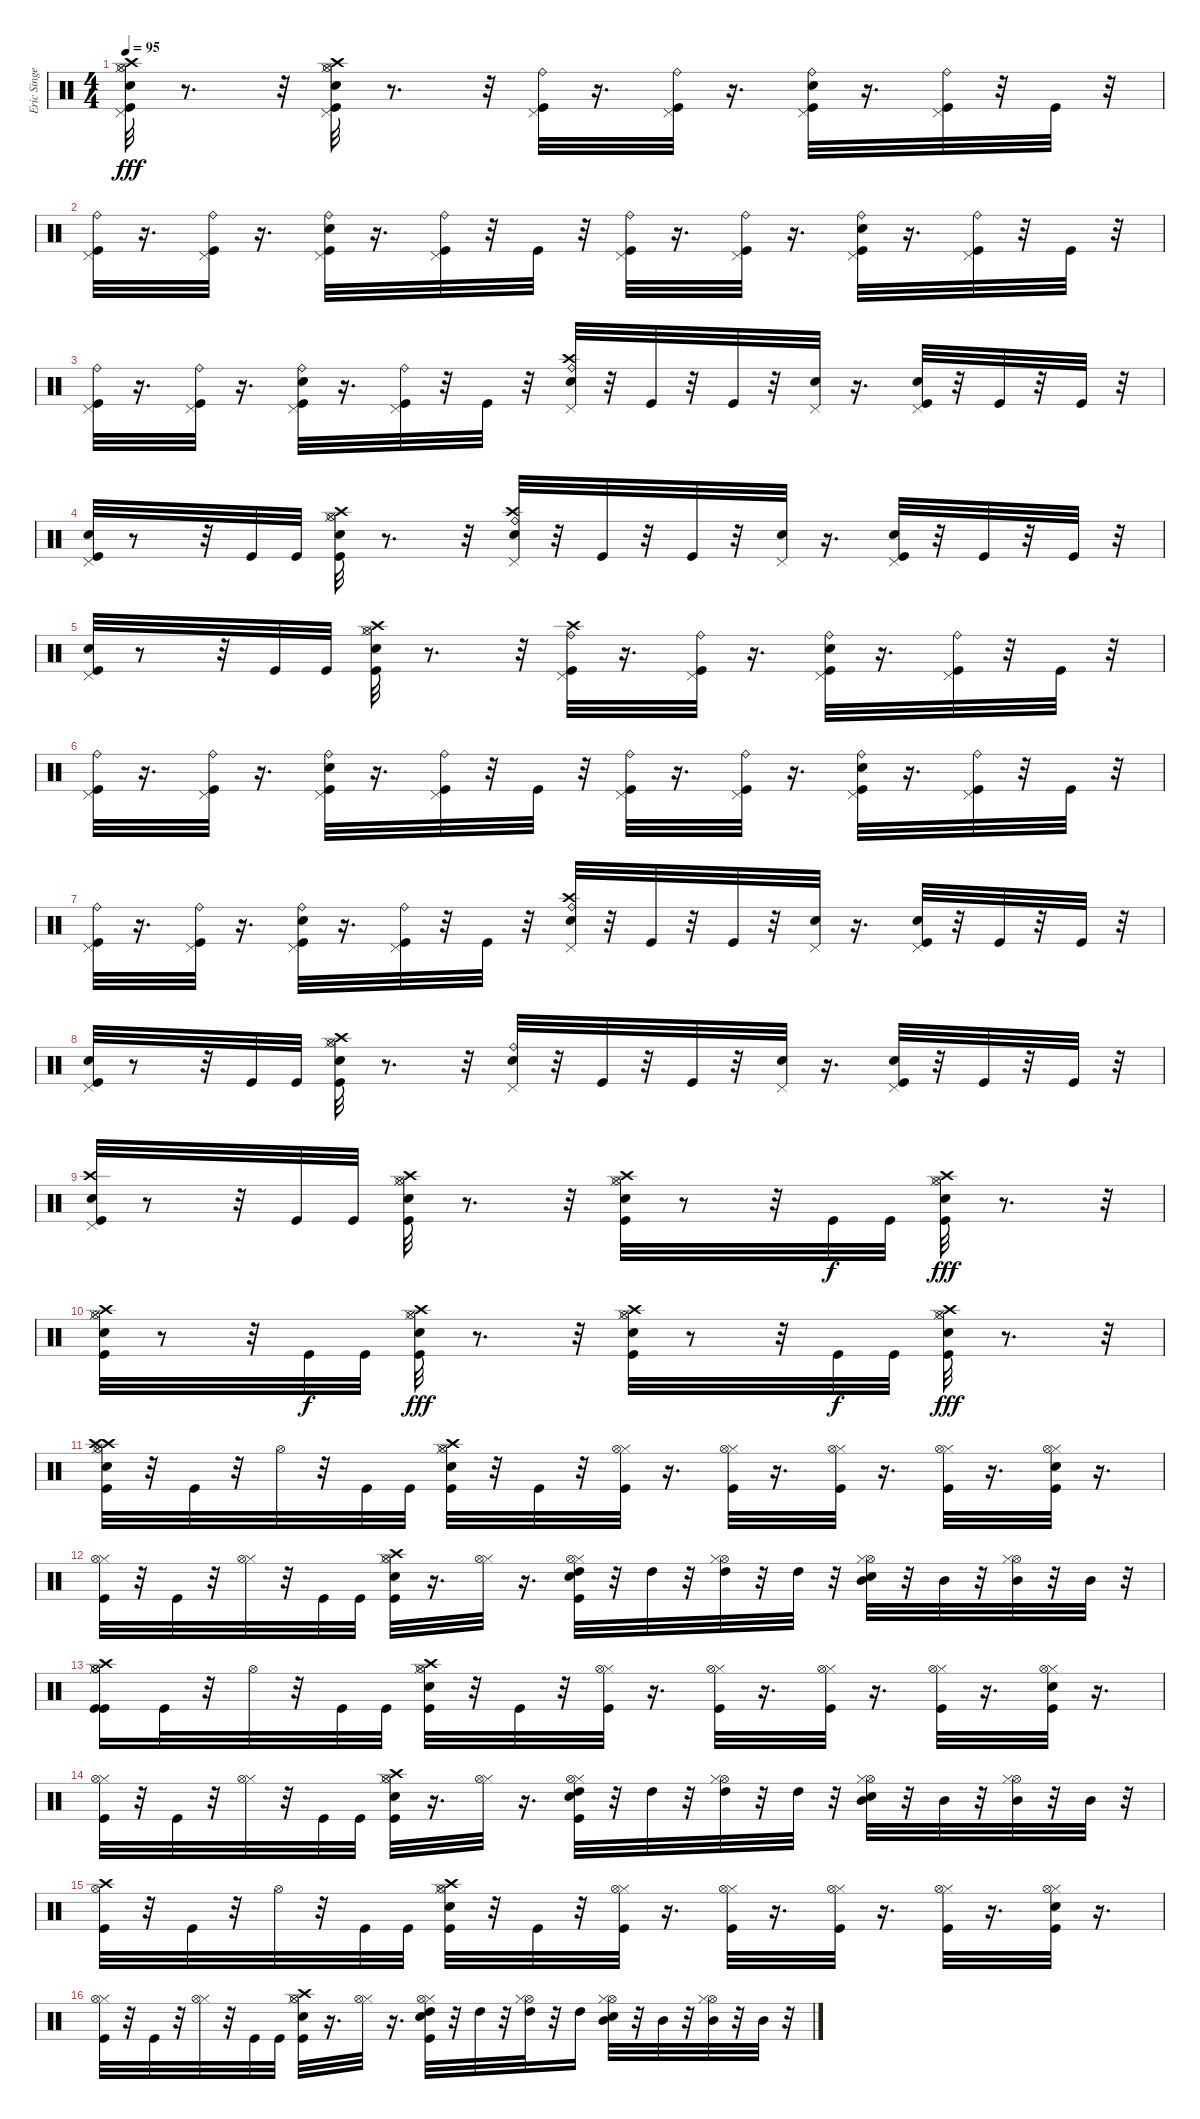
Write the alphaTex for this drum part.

\track ("Eric Singer" "Eric Singe") {instrument percussion}
\staff {score}
\articulation defaults
\ts (4 4)
\tempo 95
\clef neutral
\ks c
("Hi-Hat (open)" "Snare (hit) 2" "Hi-Hat (closed)" "Kick (hit)" "Crash high (hit)" "Pedal Hi-Hat (hit)").32{dy fff} r.8{d} r.32 ("Hi-Hat (open)" "Snare (hit) 2" "Hi-Hat (closed)" "Kick (hit)" "Crash high (hit)" "Pedal Hi-Hat (hit)").32 r.8{d} r.32 ("Pedal Hi-Hat (hit)" "Kick (hit)" "Ride (bell)").32 r.16{d} ("Pedal Hi-Hat (hit)" "Kick (hit)" "Ride (bell)").32 r.16{d} ("Pedal Hi-Hat (hit)" "Kick (hit)" "Snare (hit) 2" "Ride (bell)").32 r.16{d} ("Pedal Hi-Hat (hit)" "Kick (hit)" "Ride (bell)").32 r.32 "Kick (hit)".32 r.32 |
("Pedal Hi-Hat (hit)" "Kick (hit)" "Ride (bell)").32 r.16{d} ("Kick (hit)" "Pedal Hi-Hat (hit)" "Ride (bell)").32 r.16{d} ("Kick (hit)" "Snare (hit) 2" "Pedal Hi-Hat (hit)" "Ride (bell)").32 r.16{d} ("Kick (hit)" "Pedal Hi-Hat (hit)" "Ride (bell)").32 r.32 "Kick (hit)".32 r.32 ("Kick (hit)" "Pedal Hi-Hat (hit)" "Ride (bell)").32 r.16{d} ("Kick (hit)" "Pedal Hi-Hat (hit)" "Ride (bell)").32 r.16{d} ("Kick (hit)" "Snare (hit) 2" "Pedal Hi-Hat (hit)" "Ride (bell)").32 r.16{d} ("Kick (hit)" "Pedal Hi-Hat (hit)" "Ride (bell)").32 r.32 "Kick (hit)".32 r.32 |
("Kick (hit)" "Pedal Hi-Hat (hit)" "Ride (bell)").32 r.16{d} ("Kick (hit)" "Pedal Hi-Hat (hit)" "Ride (bell)").32 r.16{d} ("Kick (hit)" "Snare (hit) 2" "Pedal Hi-Hat (hit)" "Ride (bell)").32 r.16{d} ("Kick (hit)" "Pedal Hi-Hat (hit)" "Ride (bell)").32 r.32 "Kick (hit)".32 r.32 ("Crash high (hit)" "Pedal Hi-Hat (hit)" "Snare (hit) 2" "Ride (bell)").32 r.32 "Kick (hit)".32 r.32 "Kick (hit)".32 r.32 ("Pedal Hi-Hat (hit)" "Snare (hit) 2").32 r.16{d} ("Kick (hit)" "Snare (hit) 2" "Pedal Hi-Hat (hit)").32 r.32 "Kick (hit)".32 r.32 "Kick (hit)".32 r.32 |
("Kick (hit)" "Snare (hit) 2" "Pedal Hi-Hat (hit)").32 r.8 r.32 "Kick (hit)".32 "Kick (hit)".32 ("Hi-Hat (closed)" "Hi-Hat (open)" "Snare (hit) 2" "Kick (hit)" "Crash high (hit)").32 r.8{d} r.32 ("Crash high (hit)" "Pedal Hi-Hat (hit)" "Snare (hit) 2" "Ride (bell)").32 r.32 "Kick (hit)".32 r.32 "Kick (hit)".32 r.32 ("Pedal Hi-Hat (hit)" "Snare (hit) 2").32 r.16{d} ("Kick (hit)" "Snare (hit) 2" "Pedal Hi-Hat (hit)").32 r.32 "Kick (hit)".32 r.32 "Kick (hit)".32 r.32 |
("Kick (hit)" "Snare (hit) 2" "Pedal Hi-Hat (hit)").32 r.8 r.32 "Kick (hit)".32 "Kick (hit)".32 ("Hi-Hat (closed)" "Hi-Hat (open)" "Snare (hit) 2" "Kick (hit)" "Crash high (hit)").32 r.8{d} r.32 ("Pedal Hi-Hat (hit)" "Kick (hit)" "Ride (bell)" "Crash high (hit)").32 r.16{d} ("Pedal Hi-Hat (hit)" "Kick (hit)" "Ride (bell)").32 r.16{d} ("Pedal Hi-Hat (hit)" "Kick (hit)" "Snare (hit) 2" "Ride (bell)").32 r.16{d} ("Pedal Hi-Hat (hit)" "Kick (hit)" "Ride (bell)").32 r.32 "Kick (hit)".32 r.32 |
("Pedal Hi-Hat (hit)" "Kick (hit)" "Ride (bell)").32 r.16{d} ("Kick (hit)" "Pedal Hi-Hat (hit)" "Ride (bell)").32 r.16{d} ("Kick (hit)" "Snare (hit) 2" "Pedal Hi-Hat (hit)" "Ride (bell)").32 r.16{d} ("Kick (hit)" "Pedal Hi-Hat (hit)" "Ride (bell)").32 r.32 "Kick (hit)".32 r.32 ("Kick (hit)" "Pedal Hi-Hat (hit)" "Ride (bell)").32 r.16{d} ("Kick (hit)" "Pedal Hi-Hat (hit)" "Ride (bell)").32 r.16{d} ("Kick (hit)" "Snare (hit) 2" "Pedal Hi-Hat (hit)" "Ride (bell)").32 r.16{d} ("Kick (hit)" "Pedal Hi-Hat (hit)" "Ride (bell)").32 r.32 "Kick (hit)".32 r.32 |
("Kick (hit)" "Pedal Hi-Hat (hit)" "Ride (bell)").32 r.16{d} ("Kick (hit)" "Pedal Hi-Hat (hit)" "Ride (bell)").32 r.16{d} ("Kick (hit)" "Snare (hit) 2" "Pedal Hi-Hat (hit)" "Ride (bell)").32 r.16{d} ("Kick (hit)" "Pedal Hi-Hat (hit)" "Ride (bell)").32 r.32 "Kick (hit)".32 r.32 ("Pedal Hi-Hat (hit)" "Snare (hit) 2" "Ride (bell)" "Crash high (hit)").32 r.32 "Kick (hit)".32 r.32 "Kick (hit)".32 r.32 ("Pedal Hi-Hat (hit)" "Snare (hit) 2").32 r.16{d} ("Kick (hit)" "Snare (hit) 2" "Pedal Hi-Hat (hit)").32 r.32 "Kick (hit)".32 r.32 "Kick (hit)".32 r.32 |
("Kick (hit)" "Snare (hit) 2" "Pedal Hi-Hat (hit)").32 r.8 r.32 "Kick (hit)".32 "Kick (hit)".32 ("Hi-Hat (closed)" "Hi-Hat (open)" "Snare (hit) 2" "Kick (hit)" "Crash high (hit)").32 r.8{d} r.32 ("Pedal Hi-Hat (hit)" "Snare (hit) 2" "Ride (bell)").32 r.32 "Kick (hit)".32 r.32 "Kick (hit)".32 r.32 ("Pedal Hi-Hat (hit)" "Snare (hit) 2").32 r.16{d} ("Kick (hit)" "Snare (hit) 2" "Pedal Hi-Hat (hit)").32 r.32 "Kick (hit)".32 r.32 "Kick (hit)".32 r.32 |
("Kick (hit)" "Snare (hit) 2" "Pedal Hi-Hat (hit)" "Crash high (hit)").32 r.8 r.32 "Kick (hit)".32 "Kick (hit)".32 ("Hi-Hat (closed)" "Hi-Hat (open)" "Snare (hit) 2" "Kick (hit)" "Crash high (hit)").32 r.8{d} r.32 ("Snare (hit) 2" "Kick (hit)" "Hi-Hat (closed)" "Hi-Hat (open)" "Crash high (hit)").32 r.8 r.32 "Kick (hit)".32{dy f} "Kick (hit)".32 ("Kick (hit)" "Snare (hit) 2" "Hi-Hat (closed)" "Hi-Hat (open)" "Crash high (hit)").32{dy fff} r.8{d} r.32 |
("Kick (hit)" "Snare (hit) 2" "Hi-Hat (closed)" "Hi-Hat (open)" "Crash high (hit)").32 r.8 r.32 "Kick (hit)".32{dy f} "Kick (hit)".32 ("Kick (hit)" "Snare (hit) 2" "Hi-Hat (closed)" "Hi-Hat (open)" "Crash high (hit)").32{dy fff} r.8{d} r.32 ("Kick (hit)" "Snare (hit) 2" "Hi-Hat (closed)" "Hi-Hat (open)" "Crash high (hit)").32 r.8 r.32 "Kick (hit)".32{dy f} "Kick (hit)".32 ("Kick (hit)" "Snare (hit) 2" "Hi-Hat (closed)" "Hi-Hat (open)" "Crash high (hit)").32{dy fff} r.8{d} r.32 |
("Kick (hit)" "Snare (hit) 2" "Hi-Hat (closed)" "Hi-Hat (open)" "Crash high (hit)" "Crash high (hit)").32 r.32 "Kick (hit)".32 r.32 "Hi-Hat (open)".32 r.32 "Kick (hit)".32 "Kick (hit)".32 ("Kick (hit)" "Hi-Hat (open)" "Hi-Hat (closed)" "Crash high (hit)" "Snare (hit) 2").32 r.32 "Kick (hit)".32 r.32 ("Hi-Hat (closed)" "Kick (hit)" "Hi-Hat (open)").32 r.16{d} ("Hi-Hat (closed)" "Kick (hit)" "Hi-Hat (open)").32 r.16{d} ("Hi-Hat (closed)" "Kick (hit)" "Hi-Hat (open)").32 r.16{d} ("Kick (hit)" "Hi-Hat (closed)" "Hi-Hat (open)").32 r.16{d} ("Hi-Hat (closed)" "Kick (hit)" "Snare (hit) 2" "Hi-Hat (open)").32 r.16{d} |
("Kick (hit)" "Hi-Hat (closed)" "Hi-Hat (open)").32 r.32 "Kick (hit)".32 r.32 ("Hi-Hat (closed)" "Hi-Hat (open)").32 r.32 "Kick (hit)".32 "Kick (hit)".32 ("Kick (hit)" "Snare (hit) 2" "Crash high (hit)" "Hi-Hat (closed)" "Hi-Hat (open)").32 r.16{d} ("Hi-Hat (closed)" "Hi-Hat (open)").32 r.16{d} ("Kick (hit)" "Snare (hit) 2" "High Tom (hit)" "Hi-Hat (closed)" "Hi-Hat (open)").32 r.32 "High Tom (hit)".32 r.32 ("Hi-Hat (open)" "Hi-Hat (closed)" "High Tom (hit)").32 r.32 "High Tom (hit)".32 r.32 ("Hi-Hat (open)" "Hi-Hat (closed)" "Snare (hit) 2" "Mid Tom (hit)").32 r.32 "Mid Tom (hit)".32 r.32 ("Hi-Hat (open)" "Hi-Hat (closed)" "Mid Tom (hit)").32 r.32 "Mid Tom (hit)".32 r.32 |
("Hi-Hat (open)" "Hi-Hat (closed)" "Kick (hit)" "Crash high (hit)" "Hi-Hat (open)" "Kick (hit)").16 "Kick (hit)".32 r.32 "Hi-Hat (open)".32 r.32 "Kick (hit)".32 "Kick (hit)".32 ("Kick (hit)" "Hi-Hat (open)" "Hi-Hat (closed)" "Crash high (hit)" "Snare (hit) 2").32 r.32 "Kick (hit)".32 r.32 ("Hi-Hat (closed)" "Kick (hit)" "Hi-Hat (open)").32 r.16{d} ("Hi-Hat (closed)" "Kick (hit)" "Hi-Hat (open)").32 r.16{d} ("Hi-Hat (closed)" "Kick (hit)" "Hi-Hat (open)").32 r.16{d} ("Kick (hit)" "Hi-Hat (closed)" "Hi-Hat (open)").32 r.16{d} ("Hi-Hat (closed)" "Kick (hit)" "Snare (hit) 2" "Hi-Hat (open)").32 r.16{d} |
("Kick (hit)" "Hi-Hat (closed)" "Hi-Hat (open)").32 r.32 "Kick (hit)".32 r.32 ("Hi-Hat (closed)" "Hi-Hat (open)").32 r.32 "Kick (hit)".32 "Kick (hit)".32 ("Kick (hit)" "Snare (hit) 2" "Crash high (hit)" "Hi-Hat (closed)" "Hi-Hat (open)").32 r.16{d} ("Hi-Hat (closed)" "Hi-Hat (open)").32 r.16{d} ("Kick (hit)" "Snare (hit) 2" "High Tom (hit)" "Hi-Hat (closed)" "Hi-Hat (open)").32 r.32 "High Tom (hit)".32 r.32 ("Hi-Hat (open)" "Hi-Hat (closed)" "High Tom (hit)").32 r.32 "High Tom (hit)".32 r.32 ("Hi-Hat (open)" "Hi-Hat (closed)" "Snare (hit) 2" "Mid Tom (hit)").32 r.32 "Mid Tom (hit)".32 r.32 ("Hi-Hat (open)" "Hi-Hat (closed)" "Mid Tom (hit)").32 r.32 "Mid Tom (hit)".32 r.32 |
("Crash high (hit)" "Hi-Hat (open)" "Kick (hit)").32 r.32 "Kick (hit)".32 r.32 "Hi-Hat (open)".32 r.32 "Kick (hit)".32 "Kick (hit)".32 ("Kick (hit)" "Hi-Hat (open)" "Hi-Hat (closed)" "Crash high (hit)" "Snare (hit) 2").32 r.32 "Kick (hit)".32 r.32 ("Hi-Hat (closed)" "Kick (hit)" "Hi-Hat (open)").32 r.16{d} ("Hi-Hat (closed)" "Kick (hit)" "Hi-Hat (open)").32 r.16{d} ("Hi-Hat (closed)" "Kick (hit)" "Hi-Hat (open)").32 r.16{d} ("Kick (hit)" "Hi-Hat (closed)" "Hi-Hat (open)").32 r.16{d} ("Hi-Hat (closed)" "Kick (hit)" "Snare (hit) 2" "Hi-Hat (open)").32 r.16{d} |
("Kick (hit)" "Hi-Hat (closed)" "Hi-Hat (open)").32 r.32 "Kick (hit)".32 r.32 ("Hi-Hat (closed)" "Hi-Hat (open)").32 r.32 "Kick (hit)".32 "Kick (hit)".32 ("Kick (hit)" "Snare (hit) 2" "Crash high (hit)" "Hi-Hat (closed)" "Hi-Hat (open)").32 r.16{d} ("Hi-Hat (closed)" "Hi-Hat (open)").32 r.16{d} ("Kick (hit)" "Snare (hit) 2" "High Tom (hit)" "Hi-Hat (closed)" "Hi-Hat (open)").32 r.32 "High Tom (hit)".32 r.32 ("Hi-Hat (open)" "Hi-Hat (closed)" "High Tom (hit)").32 r.32 "High Tom (hit)".16 ("Hi-Hat (open)" "Hi-Hat (closed)" "Snare (hit) 2" "Mid Tom (hit)").32 r.32 "Mid Tom (hit)".32 r.32 ("Hi-Hat (open)" "Hi-Hat (closed)" "Mid Tom (hit)").32 r.32 "Mid Tom (hit)".32 r.32
